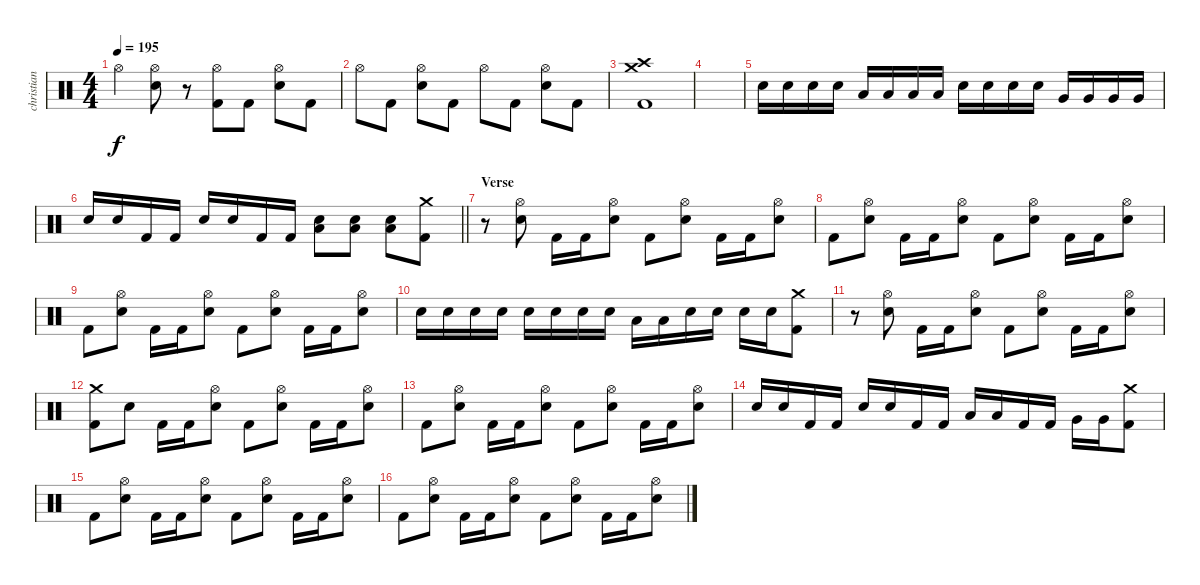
\track ("christian" "christian") {instrument percussion}
\staff {score}
\articulation defaults
\ts (4 4)
\tempo 195
\clef neutral
\ks c "Hi-Hat (open)".4{dy f}
("Hi-Hat (open)" "Electric Snare (hit)").8 r.8 ("Hi-Hat (open)" "Kick (hit) 2").8 "Kick (hit) 2".8 ("Hi-Hat (open)" "Electric Snare (hit)").8 "Kick (hit) 2".8 |
"Hi-Hat (open)".8 "Kick (hit) 2".8 ("Hi-Hat (open)" "Electric Snare (hit)").8 "Kick (hit) 2".8 "Hi-Hat (open)".8 "Kick (hit) 2".8 ("Hi-Hat (open)" "Electric Snare (hit)").8 "Kick (hit) 2".8 |
("Crash medium (hit)" "Crash high (hit)" "Kick (hit) 2").1 |
|
"Electric Snare (hit)".16 "Electric Snare (hit)".16 "Electric Snare (hit)".16 "Electric Snare (hit)".16 "Low Tom (hit)".16 "Low Tom (hit)".16 "Low Tom (hit)".16 "Low Tom (hit)".16 "Electric Snare (hit)".16 "Electric Snare (hit)".16 "Electric Snare (hit)".16 "Electric Snare (hit)".16 "Very Low Tom (hit)".16 "Very Low Tom (hit)".16 "Very Low Tom (hit)".16 "Very Low Tom (hit)".16 |
\barLineRight lightlight "Electric Snare (hit)".16 "Electric Snare (hit)".16 "Kick (hit) 2".16 "Kick (hit) 2".16 "Electric Snare (hit)".16 "Electric Snare (hit)".16 "Kick (hit) 2".16 "Kick (hit) 2".16
("Low Floor Tom (hit)" "Electric Snare (hit)").8 ("Low Floor Tom (hit)" "Electric Snare (hit)").8 ("Low Floor Tom (hit)" "Electric Snare (hit)").8 ("Crash medium (hit)" "Kick (hit) 2").8 |
\section ("" "Verse")
r.8 ("Hi-Hat (open)" "Electric Snare (hit)").8 "Kick (hit) 2".16 "Kick (hit) 2".16 ("Hi-Hat (open)" "Electric Snare (hit)").8 "Kick (hit) 2".8 ("Hi-Hat (open)" "Electric Snare (hit)").8 "Kick (hit) 2".16 "Kick (hit) 2".16 ("Hi-Hat (open)" "Electric Snare (hit)").8 |
"Kick (hit) 2".8 ("Hi-Hat (open)" "Electric Snare (hit)").8 "Kick (hit) 2".16 "Kick (hit) 2".16 ("Hi-Hat (open)" "Electric Snare (hit)").8 "Kick (hit) 2".8 ("Hi-Hat (open)" "Electric Snare (hit)").8 "Kick (hit) 2".16 "Kick (hit) 2".16 ("Hi-Hat (open)" "Electric Snare (hit)").8 |
"Kick (hit) 2".8 ("Hi-Hat (open)" "Electric Snare (hit)").8 "Kick (hit) 2".16 "Kick (hit) 2".16 ("Hi-Hat (open)" "Electric Snare (hit)").8 "Kick (hit) 2".8 ("Hi-Hat (open)" "Electric Snare (hit)").8 "Kick (hit) 2".16 "Kick (hit) 2".16 ("Hi-Hat (open)" "Electric Snare (hit)").8 |
"Electric Snare (hit)".16 "Electric Snare (hit)".16 "Electric Snare (hit)".16 "Electric Snare (hit)".16 "Electric Snare (hit)".16 "Electric Snare (hit)".16 "Electric Snare (hit)".16 "Electric Snare (hit)".16 "Low Tom (hit)".16 "Low Tom (hit)".16 "Electric Snare (hit)".16 "Electric Snare (hit)".16 "Electric Snare (hit)".16 "Electric Snare (hit)".16 ("Crash medium (hit)" "Kick (hit) 2").8 |
r.8 ("Hi-Hat (open)" "Electric Snare (hit)").8 "Kick (hit) 2".16 "Kick (hit) 2".16 ("Hi-Hat (open)" "Electric Snare (hit)").8 "Kick (hit) 2".8 ("Hi-Hat (open)" "Electric Snare (hit)").8 "Kick (hit) 2".16 "Kick (hit) 2".16 ("Hi-Hat (open)" "Electric Snare (hit)").8 |
("Crash medium (hit)" "Kick (hit) 2").8 "Electric Snare (hit)".8 "Kick (hit) 2".16 "Kick (hit) 2".16 ("Hi-Hat (open)" "Electric Snare (hit)").8 "Kick (hit) 2".8 ("Hi-Hat (open)" "Electric Snare (hit)").8 "Kick (hit) 2".16 "Kick (hit) 2".16 ("Hi-Hat (open)" "Electric Snare (hit)").8 |
"Kick (hit) 2".8 ("Hi-Hat (open)" "Electric Snare (hit)").8 "Kick (hit) 2".16 "Kick (hit) 2".16 ("Hi-Hat (open)" "Electric Snare (hit)").8 "Kick (hit) 2".8 ("Hi-Hat (open)" "Electric Snare (hit)").8 "Kick (hit) 2".16 "Kick (hit) 2".16 ("Hi-Hat (open)" "Electric Snare (hit)").8 |
"Electric Snare (hit)".16 "Electric Snare (hit)".16 "Kick (hit) 2".16 "Kick (hit) 2".16 "Electric Snare (hit)".16 "Electric Snare (hit)".16 "Kick (hit) 2".16 "Kick (hit) 2".16 "Low Tom (hit)".16 "Low Tom (hit)".16 "Kick (hit) 2".16 "Kick (hit) 2".16 "Very Low Tom (hit)".16 "Very Low Tom (hit)".16 ("Crash medium (hit)" "Kick (hit) 2").8 |
"Kick (hit) 2".8 ("Hi-Hat (open)" "Electric Snare (hit)").8 "Kick (hit) 2".16 "Kick (hit) 2".16 ("Hi-Hat (open)" "Electric Snare (hit)").8 "Kick (hit) 2".8 ("Hi-Hat (open)" "Electric Snare (hit)").8 "Kick (hit) 2".16 "Kick (hit) 2".16 ("Hi-Hat (open)" "Electric Snare (hit)").8 |
"Kick (hit) 2".8 ("Hi-Hat (open)" "Electric Snare (hit)").8 "Kick (hit) 2".16 "Kick (hit) 2".16 ("Hi-Hat (open)" "Electric Snare (hit)").8 "Kick (hit) 2".8 ("Hi-Hat (open)" "Electric Snare (hit)").8 "Kick (hit) 2".16 "Kick (hit) 2".16 ("Hi-Hat (open)" "Electric Snare (hit)").8
